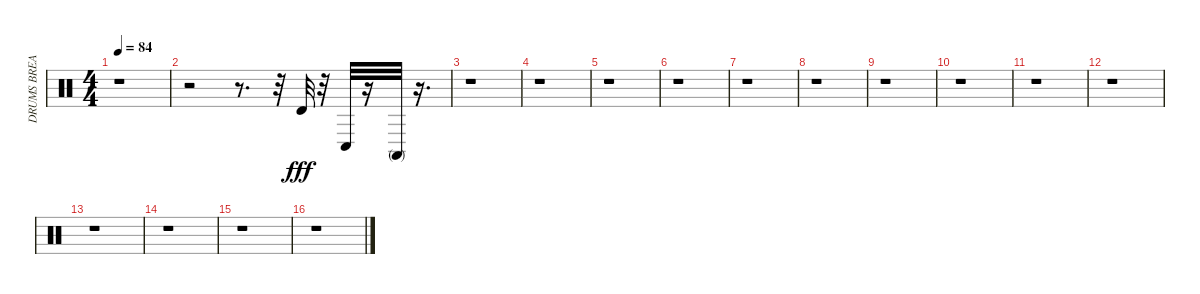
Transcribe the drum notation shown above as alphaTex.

\track ("DRUMS BREAK" "DRUMS BREA") {instrument percussion}
\staff {score}
\articulation defaults
\ts (4 4)
\tempo 84
\clef neutral
\ks c
r.1{dy fff} |
r.2 r.8{d} r.32 "Timbale high (hit)".32 r.32 "Conga low (hit)".32 r.16 "Conga high (mute)".32 r.16{d} |
r.1 |
r.1 |
r.1 |
r.1 |
r.1 |
r.1 |
r.1 |
r.1 |
r.1 |
r.1 |
r.1 |
r.1 |
r.1 |
r.1
